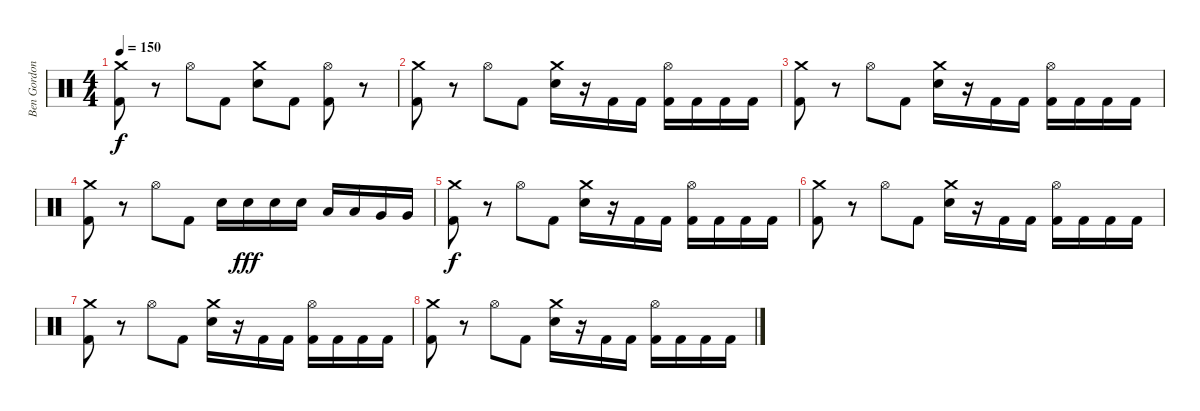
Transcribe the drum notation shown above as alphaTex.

\track ("Ben Gordon" "Ben Gordon") {instrument percussion}
\staff {score}
\articulation defaults
\ts (4 4)
\tempo 150
\clef neutral
\ks c
("Crash medium (hit)" "Kick (hit) 2").8{dy f} r.8 "Hi-Hat (open)".8 "Kick (hit) 2".8 ("Crash medium (hit)" "Electric Snare (hit)").8 "Kick (hit) 2".8 ("Hi-Hat (open)" "Kick (hit) 2").8 r.8 |
("Crash medium (hit)" "Kick (hit) 2").8{volume 0} r.8 "Hi-Hat (open)".8 "Kick (hit) 2".8 ("Crash medium (hit)" "Electric Snare (hit)").16 r.16 "Kick (hit) 2".16 "Kick (hit) 2".16 ("Hi-Hat (open)" "Kick (hit) 2").16 "Kick (hit) 2".16 "Kick (hit) 2".16 "Kick (hit) 2".16 |
("Crash medium (hit)" "Kick (hit) 2").8 r.8 "Hi-Hat (open)".8 "Kick (hit) 2".8 ("Crash medium (hit)" "Electric Snare (hit)").16 r.16 "Kick (hit) 2".16 "Kick (hit) 2".16 ("Hi-Hat (open)" "Kick (hit) 2").16 "Kick (hit) 2".16 "Kick (hit) 2".16 "Kick (hit) 2".16 |
("Crash medium (hit)" "Kick (hit) 2").8 r.8 "Hi-Hat (open)".8 "Kick (hit) 2".8 "Electric Snare (hit)".16 "Electric Snare (hit)".16{dy fff} "Electric Snare (hit)".16 "Electric Snare (hit)".16 "Low Tom (hit)".16 "Low Tom (hit)".16 "Very Low Tom (hit)".16 "Very Low Tom (hit)".16 |
("Crash medium (hit)" "Kick (hit) 2").8{dy f} r.8 "Hi-Hat (open)".8 "Kick (hit) 2".8 ("Crash medium (hit)" "Electric Snare (hit)").16 r.16 "Kick (hit) 2".16 "Kick (hit) 2".16 ("Hi-Hat (open)" "Kick (hit) 2").16 "Kick (hit) 2".16 "Kick (hit) 2".16 "Kick (hit) 2".16 |
("Crash medium (hit)" "Kick (hit) 2").8 r.8 "Hi-Hat (open)".8 "Kick (hit) 2".8 ("Crash medium (hit)" "Electric Snare (hit)").16 r.16 "Kick (hit) 2".16 "Kick (hit) 2".16 ("Hi-Hat (open)" "Kick (hit) 2").16 "Kick (hit) 2".16 "Kick (hit) 2".16 "Kick (hit) 2".16 |
("Crash medium (hit)" "Kick (hit) 2").8 r.8 "Hi-Hat (open)".8 "Kick (hit) 2".8 ("Crash medium (hit)" "Electric Snare (hit)").16 r.16 "Kick (hit) 2".16 "Kick (hit) 2".16 ("Hi-Hat (open)" "Kick (hit) 2").16 "Kick (hit) 2".16 "Kick (hit) 2".16 "Kick (hit) 2".16 |
("Crash medium (hit)" "Kick (hit) 2").8 r.8 "Hi-Hat (open)".8 "Kick (hit) 2".8 ("Crash medium (hit)" "Electric Snare (hit)").16 r.16 "Kick (hit) 2".16 "Kick (hit) 2".16 ("Hi-Hat (open)" "Kick (hit) 2").16 "Kick (hit) 2".16 "Kick (hit) 2".16 "Kick (hit) 2".16
